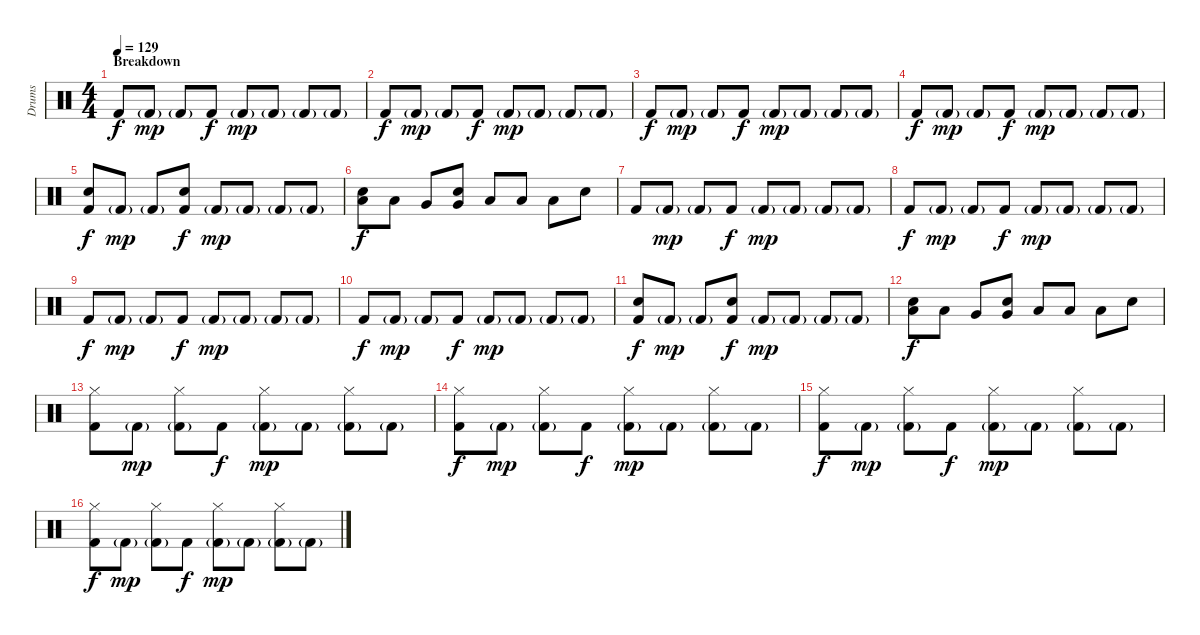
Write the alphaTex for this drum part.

\track ("Drums" "Drums") {instrument percussion}
\staff {score}
\articulation defaults
\ts (4 4)
\section ("" "Breakdown")
\tempo 129
\clef neutral
\ks c "Kick (hit) 2".8{dy f} "Kick (hit) 2"{g}.8{dy mp} "Kick (hit) 2"{g}.8 "Kick (hit) 2".8{dy f} "Kick (hit) 2"{g}.8{dy mp} "Kick (hit) 2"{g}.8 "Kick (hit) 2"{g}.8 "Kick (hit) 2"{g}.8
|
"Kick (hit) 2".8{dy f} "Kick (hit) 2"{g}.8{dy mp} "Kick (hit) 2"{g}.8 "Kick (hit) 2".8{dy f} "Kick (hit) 2"{g}.8{dy mp} "Kick (hit) 2"{g}.8 "Kick (hit) 2"{g}.8 "Kick (hit) 2"{g}.8 |
"Kick (hit) 2".8{dy f} "Kick (hit) 2"{g}.8{dy mp} "Kick (hit) 2"{g}.8 "Kick (hit) 2".8{dy f} "Kick (hit) 2"{g}.8{dy mp} "Kick (hit) 2"{g}.8 "Kick (hit) 2"{g}.8 "Kick (hit) 2"{g}.8 |
"Kick (hit) 2".8{dy f} "Kick (hit) 2"{g}.8{dy mp} "Kick (hit) 2"{g}.8 "Kick (hit) 2".8{dy f} "Kick (hit) 2"{g}.8{dy mp} "Kick (hit) 2"{g}.8 "Kick (hit) 2"{g}.8 "Kick (hit) 2"{g}.8 |
("Snare (hit) 2" "Kick (hit) 2").8{dy f} "Kick (hit) 2"{g}.8{dy mp} "Kick (hit) 2"{g}.8 ("Snare (hit) 2" "Kick (hit) 2").8{dy f} "Kick (hit) 2"{g}.8{dy mp} "Kick (hit) 2"{g}.8 "Kick (hit) 2"{g}.8 "Kick (hit) 2"{g}.8 |
("Low Tom (hit)" "Snare (hit) 2").8{dy f} "Low Tom (hit)".8 "Very Low Tom (hit)".8 ("Very Low Tom (hit)" "Snare (hit) 2").8 "Low Floor Tom (hit)".8 "Low Floor Tom (hit)".8 "Low Floor Tom (hit)".8 "Snare (hit) 2".8 |
"Kick (hit) 2".8 "Kick (hit) 2"{g}.8{dy mp} "Kick (hit) 2"{g}.8 "Kick (hit) 2".8{dy f} "Kick (hit) 2"{g}.8{dy mp} "Kick (hit) 2"{g}.8 "Kick (hit) 2"{g}.8 "Kick (hit) 2"{g}.8 |
"Kick (hit) 2".8{dy f} "Kick (hit) 2"{g}.8{dy mp} "Kick (hit) 2"{g}.8 "Kick (hit) 2".8{dy f} "Kick (hit) 2"{g}.8{dy mp} "Kick (hit) 2"{g}.8 "Kick (hit) 2"{g}.8 "Kick (hit) 2"{g}.8 |
"Kick (hit) 2".8{dy f} "Kick (hit) 2"{g}.8{dy mp} "Kick (hit) 2"{g}.8 "Kick (hit) 2".8{dy f} "Kick (hit) 2"{g}.8{dy mp} "Kick (hit) 2"{g}.8 "Kick (hit) 2"{g}.8 "Kick (hit) 2"{g}.8 |
"Kick (hit) 2".8{dy f} "Kick (hit) 2"{g}.8{dy mp} "Kick (hit) 2"{g}.8 "Kick (hit) 2".8{dy f} "Kick (hit) 2"{g}.8{dy mp} "Kick (hit) 2"{g}.8 "Kick (hit) 2"{g}.8 "Kick (hit) 2"{g}.8 |
("Snare (hit) 2" "Kick (hit) 2").8{dy f} "Kick (hit) 2"{g}.8{dy mp} "Kick (hit) 2"{g}.8 ("Snare (hit) 2" "Kick (hit) 2").8{dy f} "Kick (hit) 2"{g}.8{dy mp} "Kick (hit) 2"{g}.8 "Kick (hit) 2"{g}.8 "Kick (hit) 2"{g}.8 |
("Low Tom (hit)" "Snare (hit) 2").8{dy f} "Low Tom (hit)".8 "Very Low Tom (hit)".8 ("Very Low Tom (hit)" "Snare (hit) 2").8 "Low Floor Tom (hit)".8 "Low Floor Tom (hit)".8 "Low Floor Tom (hit)".8 "Snare (hit) 2".8 |
("Hi-Hat (closed)" "Kick (hit) 2").8 "Kick (hit) 2"{g}.8{dy mp} ("Hi-Hat (closed)" "Kick (hit) 2"{g}).8 "Kick (hit) 2".8{dy f} ("Hi-Hat (closed)" "Kick (hit) 2"{g}).8{dy mp} "Kick (hit) 2"{g}.8 ("Hi-Hat (closed)" "Kick (hit) 2"{g}).8 "Kick (hit) 2"{g}.8 |
("Hi-Hat (closed)" "Kick (hit) 2").8{dy f} "Kick (hit) 2"{g}.8{dy mp} ("Hi-Hat (closed)" "Kick (hit) 2"{g}).8 "Kick (hit) 2".8{dy f} ("Hi-Hat (closed)" "Kick (hit) 2"{g}).8{dy mp} "Kick (hit) 2"{g}.8 ("Hi-Hat (closed)" "Kick (hit) 2"{g}).8 "Kick (hit) 2"{g}.8 |
("Hi-Hat (closed)" "Kick (hit) 2").8{dy f} "Kick (hit) 2"{g}.8{dy mp} ("Hi-Hat (closed)" "Kick (hit) 2"{g}).8 "Kick (hit) 2".8{dy f} ("Hi-Hat (closed)" "Kick (hit) 2"{g}).8{dy mp} "Kick (hit) 2"{g}.8 ("Hi-Hat (closed)" "Kick (hit) 2"{g}).8 "Kick (hit) 2"{g}.8 |
("Hi-Hat (closed)" "Kick (hit) 2").8{dy f} "Kick (hit) 2"{g}.8{dy mp} ("Hi-Hat (closed)" "Kick (hit) 2"{g}).8 "Kick (hit) 2".8{dy f} ("Hi-Hat (closed)" "Kick (hit) 2"{g}).8{dy mp} "Kick (hit) 2"{g}.8 ("Hi-Hat (closed)" "Kick (hit) 2"{g}).8 "Kick (hit) 2"{g}.8
